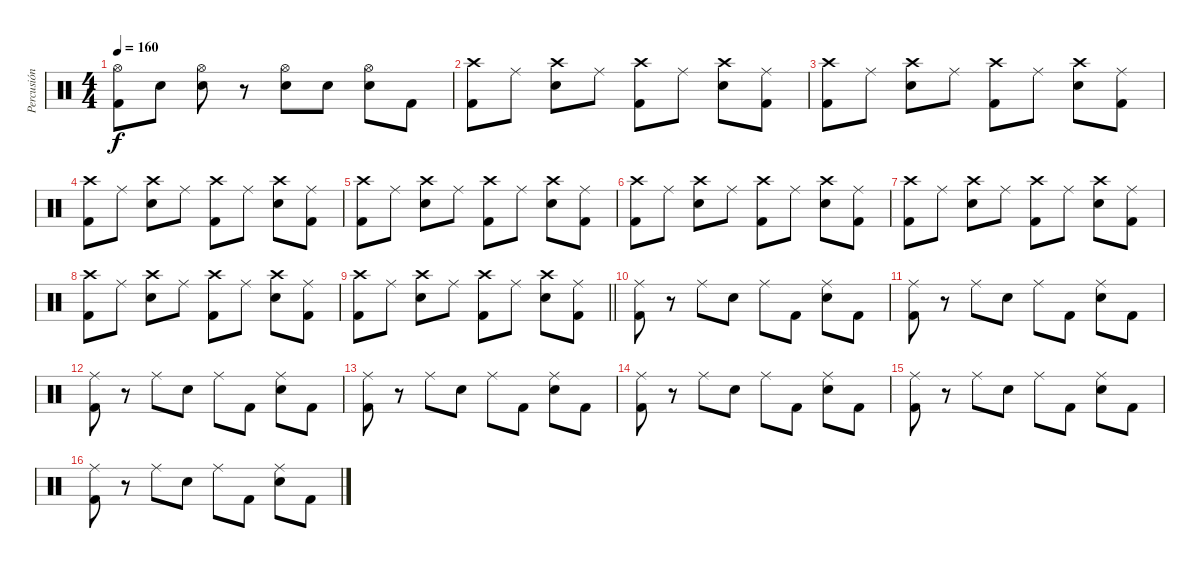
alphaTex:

\track ("Percusión" "Percusión") {instrument percussion}
\staff {score}
\articulation defaults
\ts (4 4)
\tempo 160
\clef neutral
\ks c
("Hi-Hat (open)" "Kick (hit) 2").8{dy f} "Snare (hit) 2".8 ("Hi-Hat (open)" "Snare (hit) 2").8 r.8 ("Hi-Hat (open)" "Snare (hit) 2").8 "Snare (hit) 2".8 ("Hi-Hat (open)" "Snare (hit) 2").8 "Kick (hit) 2".8 |
("Crash high (hit)" "Kick (hit) 2").8 "Ride (middle)".8 ("Crash high (hit)" "Snare (hit) 2").8 "Ride (middle)".8 ("Crash high (hit)" "Kick (hit) 2").8 "Ride (middle)".8 ("Crash high (hit)" "Snare (hit) 2").8 ("Ride (middle)" "Kick (hit) 2").8 |
("Crash high (hit)" "Kick (hit) 2").8 "Ride (middle)".8 ("Crash high (hit)" "Snare (hit) 2").8 "Ride (middle)".8 ("Crash high (hit)" "Kick (hit) 2").8 "Ride (middle)".8 ("Crash high (hit)" "Snare (hit) 2").8 ("Ride (middle)" "Kick (hit) 2").8 |
("Crash high (hit)" "Kick (hit) 2").8 "Ride (middle)".8 ("Crash high (hit)" "Snare (hit) 2").8 "Ride (middle)".8 ("Crash high (hit)" "Kick (hit) 2").8 "Ride (middle)".8 ("Crash high (hit)" "Snare (hit) 2").8 ("Ride (middle)" "Kick (hit) 2").8 |
("Crash high (hit)" "Kick (hit) 2").8 "Ride (middle)".8 ("Crash high (hit)" "Snare (hit) 2").8 "Ride (middle)".8 ("Crash high (hit)" "Kick (hit) 2").8 "Ride (middle)".8 ("Crash high (hit)" "Snare (hit) 2").8 ("Ride (middle)" "Kick (hit) 2").8 |
("Crash high (hit)" "Kick (hit) 2").8 "Ride (middle)".8 ("Crash high (hit)" "Snare (hit) 2").8 "Ride (middle)".8 ("Crash high (hit)" "Kick (hit) 2").8 "Ride (middle)".8 ("Crash high (hit)" "Snare (hit) 2").8 ("Ride (middle)" "Kick (hit) 2").8 |
("Crash high (hit)" "Kick (hit) 2").8 "Ride (middle)".8 ("Crash high (hit)" "Snare (hit) 2").8 "Ride (middle)".8 ("Crash high (hit)" "Kick (hit) 2").8 "Ride (middle)".8 ("Crash high (hit)" "Snare (hit) 2").8 ("Ride (middle)" "Kick (hit) 2").8 |
("Crash high (hit)" "Kick (hit) 2").8 "Ride (middle)".8 ("Crash high (hit)" "Snare (hit) 2").8 "Ride (middle)".8 ("Crash high (hit)" "Kick (hit) 2").8 "Ride (middle)".8 ("Crash high (hit)" "Snare (hit) 2").8 ("Ride (middle)" "Kick (hit) 2").8 |
\barLineRight lightlight
("Crash high (hit)" "Kick (hit) 2").8 "Ride (middle)".8 ("Crash high (hit)" "Snare (hit) 2").8 "Ride (middle)".8 ("Crash high (hit)" "Kick (hit) 2").8 "Ride (middle)".8 ("Crash high (hit)" "Snare (hit) 2").8 ("Ride (middle)" "Kick (hit) 2").8 |
("Ride (middle)" "Kick (hit) 2").8 r.8 "Ride (middle)".8 "Snare (hit) 2".8 "Ride (middle)".8 "Kick (hit) 2".8 ("Ride (middle)" "Snare (hit) 2").8 "Kick (hit) 2".8 |
("Ride (middle)" "Kick (hit) 2").8 r.8 "Ride (middle)".8 "Snare (hit) 2".8 "Ride (middle)".8 "Kick (hit) 2".8 ("Ride (middle)" "Snare (hit) 2").8 "Kick (hit) 2".8 |
("Ride (middle)" "Kick (hit) 2").8 r.8 "Ride (middle)".8 "Snare (hit) 2".8 "Ride (middle)".8 "Kick (hit) 2".8 ("Ride (middle)" "Snare (hit) 2").8 "Kick (hit) 2".8 |
("Ride (middle)" "Kick (hit) 2").8 r.8 "Ride (middle)".8 "Snare (hit) 2".8 "Ride (middle)".8 "Kick (hit) 2".8 ("Ride (middle)" "Snare (hit) 2").8 "Kick (hit) 2".8 |
("Ride (middle)" "Kick (hit) 2").8 r.8 "Ride (middle)".8 "Snare (hit) 2".8 "Ride (middle)".8 "Kick (hit) 2".8 ("Ride (middle)" "Snare (hit) 2").8 "Kick (hit) 2".8 |
("Ride (middle)" "Kick (hit) 2").8 r.8 "Ride (middle)".8 "Snare (hit) 2".8 "Ride (middle)".8 "Kick (hit) 2".8 ("Ride (middle)" "Snare (hit) 2").8 "Kick (hit) 2".8 |
("Ride (middle)" "Kick (hit) 2").8 r.8 "Ride (middle)".8 "Snare (hit) 2".8 "Ride (middle)".8 "Kick (hit) 2".8 ("Ride (middle)" "Snare (hit) 2").8 "Kick (hit) 2".8
